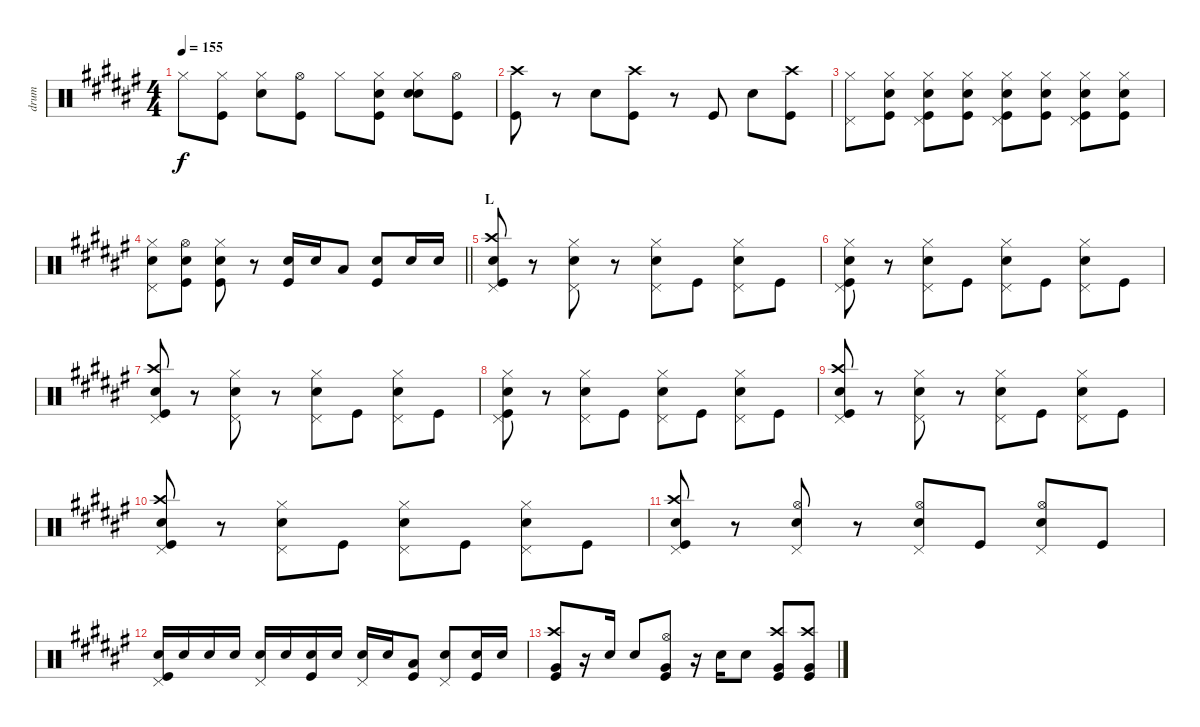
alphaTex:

\track ("drum" "drum") {instrument percussion}
\staff {score}
\articulation defaults
\ts (4 4)
\tempo 155
\clef neutral
\ks f# "Hi-Hat (closed)".8{dy f}
("Hi-Hat (closed)" "Kick (hit)").8 ("Hi-Hat (closed)" "Snare (hit) 2").8 ("Hi-Hat (open)" "Kick (hit)").8 "Hi-Hat (closed)".8 ("Hi-Hat (closed)" "Hand Clap (hit)" "Kick (hit)").8 ("Hi-Hat (closed)" "Snare (hit) 2" "Hand Clap (hit)").8 ("Hi-Hat (open)" "Kick (hit)").8 |
("Crash high (hit)" "Kick (hit)").8 r.8 "Snare (hit) 2".8 ("Crash high (hit)" "Kick (hit)").8 r.8 "Kick (hit)".8 "Snare (hit) 2".8 ("Crash high (hit)" "Kick (hit)").8 |
("Hi-Hat (closed)" "Pedal Hi-Hat (hit)").8 ("Hi-Hat (closed)" "Snare (hit) 2" "Kick (hit)").8 ("Hi-Hat (closed)" "Snare (hit) 2" "Pedal Hi-Hat (hit)" "Kick (hit)").8 ("Hi-Hat (closed)" "Snare (hit) 2" "Kick (hit)").8 ("Hi-Hat (closed)" "Snare (hit) 2" "Pedal Hi-Hat (hit)" "Kick (hit)").8 ("Hi-Hat (closed)" "Snare (hit) 2" "Kick (hit)").8 ("Hi-Hat (closed)" "Snare (hit) 2" "Pedal Hi-Hat (hit)" "Kick (hit)").8 ("Hi-Hat (closed)" "Snare (hit) 2" "Kick (hit)").8 |
\barLineRight lightlight
("Hi-Hat (closed)" "Snare (hit) 2" "Pedal Hi-Hat (hit)").8 ("Hi-Hat (open)" "Snare (hit) 2" "Kick (hit)").8 ("Hi-Hat (closed)" "Snare (hit) 2" "Kick (hit)").8 r.8 ("Snare (hit) 2" "Kick (hit)").16 "Snare (hit) 2".16 "Low Tom (hit)".8 ("Snare (hit) 2" "Kick (hit)").8 "Snare (hit) 2".16 "Snare (hit) 2".16 |
\section ("" "L")
("Crash high (hit)" "Snare (hit) 2" "Pedal Hi-Hat (hit)" "Kick (hit)").8 r.8 ("Hi-Hat (closed)" "Snare (hit) 2" "Pedal Hi-Hat (hit)").8 r.8 ("Hi-Hat (closed)" "Snare (hit) 2" "Pedal Hi-Hat (hit)").8 "Kick (hit)".8 ("Hi-Hat (closed)" "Snare (hit) 2" "Pedal Hi-Hat (hit)").8 "Kick (hit)".8 |
("Hi-Hat (closed)" "Snare (hit) 2" "Pedal Hi-Hat (hit)" "Kick (hit)").8 r.8 ("Hi-Hat (closed)" "Snare (hit) 2" "Pedal Hi-Hat (hit)").8 "Kick (hit)".8 ("Hi-Hat (closed)" "Snare (hit) 2" "Pedal Hi-Hat (hit)").8 "Kick (hit)".8 ("Hi-Hat (closed)" "Snare (hit) 2" "Pedal Hi-Hat (hit)").8 "Kick (hit)".8 |
("Crash high (hit)" "Snare (hit) 2" "Pedal Hi-Hat (hit)" "Kick (hit)").8 r.8 ("Hi-Hat (closed)" "Snare (hit) 2" "Pedal Hi-Hat (hit)").8 r.8 ("Hi-Hat (closed)" "Snare (hit) 2" "Pedal Hi-Hat (hit)").8 "Kick (hit)".8 ("Hi-Hat (closed)" "Snare (hit) 2" "Pedal Hi-Hat (hit)").8 "Kick (hit)".8 |
("Hi-Hat (closed)" "Snare (hit) 2" "Pedal Hi-Hat (hit)" "Kick (hit)").8 r.8 ("Hi-Hat (closed)" "Snare (hit) 2" "Pedal Hi-Hat (hit)").8 "Kick (hit)".8 ("Hi-Hat (closed)" "Snare (hit) 2" "Pedal Hi-Hat (hit)").8 "Kick (hit)".8 ("Hi-Hat (closed)" "Snare (hit) 2" "Pedal Hi-Hat (hit)").8 "Kick (hit)".8 |
("Crash high (hit)" "Snare (hit) 2" "Pedal Hi-Hat (hit)" "Kick (hit)").8 r.8 ("Hi-Hat (closed)" "Snare (hit) 2" "Pedal Hi-Hat (hit)").8 r.8 ("Hi-Hat (closed)" "Snare (hit) 2" "Pedal Hi-Hat (hit)").8 "Kick (hit)".8 ("Hi-Hat (closed)" "Snare (hit) 2" "Pedal Hi-Hat (hit)").8 "Kick (hit)".8 |
("Crash high (hit)" "Snare (hit) 2" "Pedal Hi-Hat (hit)" "Kick (hit)").8 r.8 ("Hi-Hat (closed)" "Snare (hit) 2" "Pedal Hi-Hat (hit)").8 "Kick (hit)".8 ("Hi-Hat (closed)" "Snare (hit) 2" "Pedal Hi-Hat (hit)").8 "Kick (hit)".8 ("Hi-Hat (closed)" "Snare (hit) 2" "Pedal Hi-Hat (hit)").8 "Kick (hit)".8 |
("Crash high (hit)" "Snare (hit) 2" "Pedal Hi-Hat (hit)" "Kick (hit)").8 r.8 ("Hi-Hat (open)" "Snare (hit) 2" "Pedal Hi-Hat (hit)").8 r.8 ("Hi-Hat (open)" "Snare (hit) 2" "Pedal Hi-Hat (hit)").8 "Kick (hit)".8 ("Hi-Hat (open)" "Snare (hit) 2" "Pedal Hi-Hat (hit)").8 "Kick (hit)".8 |
("Snare (hit) 2" "Pedal Hi-Hat (hit)" "Kick (hit)").16 "Snare (hit) 2".16 "Snare (hit) 2".16 "Snare (hit) 2".16 ("Snare (hit) 2" "Pedal Hi-Hat (hit)").16 "Snare (hit) 2".16 ("Snare (hit) 2" "Kick (hit)").16 "Snare (hit) 2".16 ("Snare (hit) 2" "Pedal Hi-Hat (hit)").16 "Snare (hit) 2".16 ("Low Tom (hit)" "Kick (hit)").8 ("Snare (hit) 2" "Pedal Hi-Hat (hit)").8 ("Snare (hit) 2" "Kick (hit)").16 "Snare (hit) 2".16 |
("Crash high (hit)" "Very Low Tom (hit)" "Kick (hit)").8 r.16 "Snare (hit) 2".16 "Snare (hit) 2".8 ("Hi-Hat (open)" "Very Low Tom (hit)" "Kick (hit)").8 r.16 "Snare (hit) 2".16 "Snare (hit) 2".8 ("Crash high (hit)" "Very Low Tom (hit)" "Kick (hit)").8 ("Crash high (hit)" "Very Low Tom (hit)" "Kick (hit)").8
